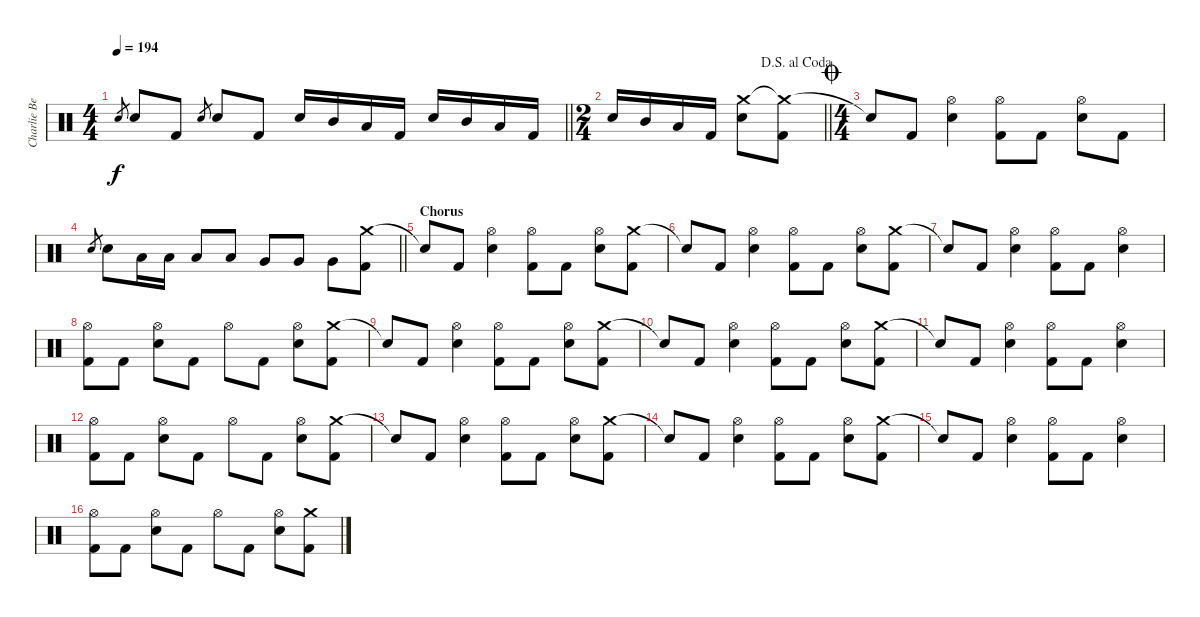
\track ("Charlie Benate " "Charlie Be") {instrument percussion}
\staff {score}
\articulation defaults
\ts (4 4)
\tempo 194
\clef neutral
\barLineRight lightlight
\ks c "Snare (hit) 2".8{gr dy f} "Snare (hit) 2".8 "Kick (hit) 2".8 "Snare (hit) 2".8{gr} "Snare (hit) 2".8 "Kick (hit) 2".8 "Snare (hit) 2".16 "Mid Tom (hit)".16 "Low Tom (hit)".16 "Kick (hit) 2".16 "Snare (hit) 2".16 "Mid Tom (hit)".16 "Low Tom (hit)".16 "Kick (hit) 2".16
|
\ts (2 4)
\jump dalsegnoalcoda
\barLineRight lightlight "Snare (hit) 2".16 "Mid Tom (hit)".16 "Low Tom (hit)".16 "Kick (hit) 2".16
("Crash medium (hit)" "Snare (hit) 2").8 ("Crash medium (hit)"{t} "Kick (hit) 2").8 |
\ts (4 4)
\jump coda "Snare (hit)"{t}.8 "Kick (hit) 2".8
("Hi-Hat (open)" "Snare (hit) 2").4 ("Hi-Hat (open)" "Kick (hit) 2").8 "Kick (hit) 2".8 ("Hi-Hat (open)" "Snare (hit) 2").8 "Kick (hit) 2".8 |
\barLineRight lightlight "Snare (hit) 2".8{gr} "Snare (hit) 2".8 "Low Tom (hit)".16 "Low Tom (hit)".16 "Low Tom (hit)".8 "Low Tom (hit)".8 "Very Low Tom (hit)".8 "Very Low Tom (hit)".8 "Very Low Tom (hit)".8
("Crash medium (hit)" "Kick (hit) 2").8 |
\section ("" "Chorus")
"Snare (hit)"{t}.8 "Kick (hit) 2".8 ("Hi-Hat (open)" "Snare (hit) 2").4 ("Hi-Hat (open)" "Kick (hit) 2").8 "Kick (hit) 2".8 ("Hi-Hat (open)" "Snare (hit) 2").8 ("Crash medium (hit)" "Kick (hit) 2").8 |
"Snare (hit)"{t}.8 "Kick (hit) 2".8 ("Hi-Hat (open)" "Snare (hit) 2").4 ("Hi-Hat (open)" "Kick (hit) 2").8 "Kick (hit) 2".8 ("Hi-Hat (open)" "Snare (hit) 2").8 ("Crash medium (hit)" "Kick (hit) 2").8 |
"Snare (hit)"{t}.8 "Kick (hit) 2".8 ("Hi-Hat (open)" "Snare (hit) 2").4 ("Hi-Hat (open)" "Kick (hit) 2").8 "Kick (hit) 2".8 ("Hi-Hat (open)" "Snare (hit) 2").4 |
("Hi-Hat (open)" "Kick (hit) 2").8 "Kick (hit) 2".8 ("Hi-Hat (open)" "Snare (hit) 2").8 "Kick (hit) 2".8 "Hi-Hat (open)".8 "Kick (hit) 2".8 ("Hi-Hat (open)" "Snare (hit) 2").8 ("Crash medium (hit)" "Kick (hit) 2").8 |
"Snare (hit)"{t}.8 "Kick (hit) 2".8 ("Hi-Hat (open)" "Snare (hit) 2").4 ("Hi-Hat (open)" "Kick (hit) 2").8 "Kick (hit) 2".8 ("Hi-Hat (open)" "Snare (hit) 2").8 ("Crash medium (hit)" "Kick (hit) 2").8 |
"Snare (hit)"{t}.8 "Kick (hit) 2".8 ("Hi-Hat (open)" "Snare (hit) 2").4 ("Hi-Hat (open)" "Kick (hit) 2").8 "Kick (hit) 2".8 ("Hi-Hat (open)" "Snare (hit) 2").8 ("Crash medium (hit)" "Kick (hit) 2").8 |
"Snare (hit)"{t}.8 "Kick (hit) 2".8 ("Hi-Hat (open)" "Snare (hit) 2").4 ("Hi-Hat (open)" "Kick (hit) 2").8 "Kick (hit) 2".8 ("Hi-Hat (open)" "Snare (hit) 2").4 |
("Hi-Hat (open)" "Kick (hit) 2").8 "Kick (hit) 2".8 ("Hi-Hat (open)" "Snare (hit) 2").8 "Kick (hit) 2".8 "Hi-Hat (open)".8 "Kick (hit) 2".8 ("Hi-Hat (open)" "Snare (hit) 2").8 ("Crash medium (hit)" "Kick (hit) 2").8 |
"Snare (hit)"{t}.8 "Kick (hit) 2".8 ("Hi-Hat (open)" "Snare (hit) 2").4 ("Hi-Hat (open)" "Kick (hit) 2").8 "Kick (hit) 2".8 ("Hi-Hat (open)" "Snare (hit) 2").8 ("Crash medium (hit)" "Kick (hit) 2").8 |
"Snare (hit)"{t}.8 "Kick (hit) 2".8 ("Hi-Hat (open)" "Snare (hit) 2").4 ("Hi-Hat (open)" "Kick (hit) 2").8 "Kick (hit) 2".8 ("Hi-Hat (open)" "Snare (hit) 2").8 ("Crash medium (hit)" "Kick (hit) 2").8 |
"Snare (hit)"{t}.8 "Kick (hit) 2".8 ("Hi-Hat (open)" "Snare (hit) 2").4 ("Hi-Hat (open)" "Kick (hit) 2").8 "Kick (hit) 2".8 ("Hi-Hat (open)" "Snare (hit) 2").4 |
("Hi-Hat (open)" "Kick (hit) 2").8 "Kick (hit) 2".8 ("Hi-Hat (open)" "Snare (hit) 2").8 "Kick (hit) 2".8 "Hi-Hat (open)".8 "Kick (hit) 2".8 ("Hi-Hat (open)" "Snare (hit) 2").8 ("Crash medium (hit)" "Kick (hit) 2").8
